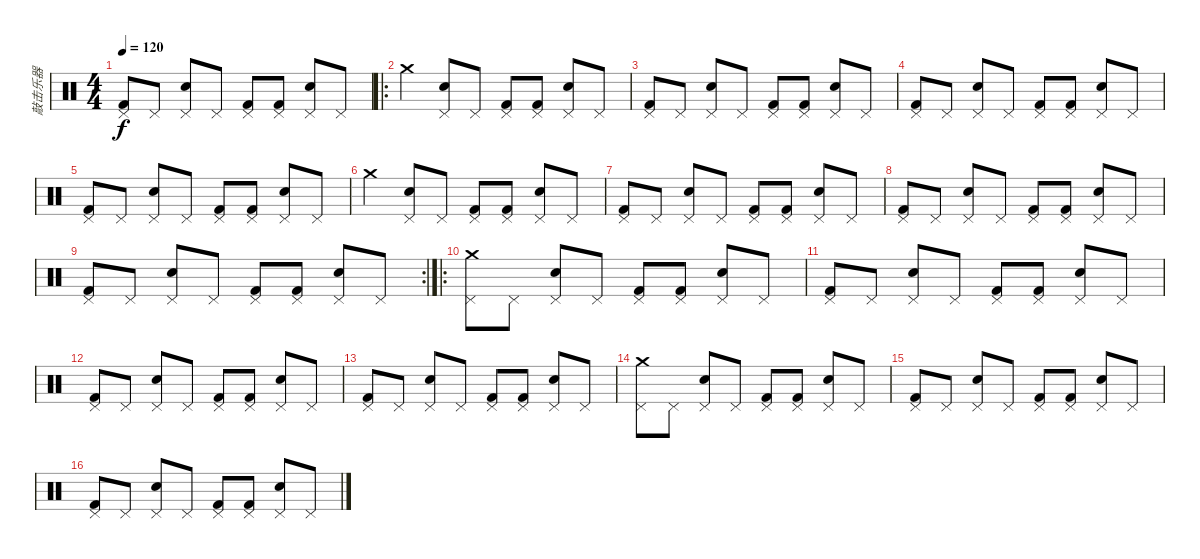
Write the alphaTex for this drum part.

\track ("敲击乐器" "敲击乐器") {instrument percussion}
\staff {score}
\articulation defaults
\ts (4 4)
\tempo 120
\clef neutral
\ks c
("Kick (hit) 2" "Pedal Hi-Hat (hit)").8{dy f} "Pedal Hi-Hat (hit)".8 ("Electric Snare (hit)" "Pedal Hi-Hat (hit)").8 "Pedal Hi-Hat (hit)".8 ("Kick (hit) 2" "Pedal Hi-Hat (hit)").8 ("Kick (hit) 2" "Pedal Hi-Hat (hit)").8 ("Electric Snare (hit)" "Pedal Hi-Hat (hit)").8 "Pedal Hi-Hat (hit)".8 |
\ro "Crash medium (hit)".4
("Electric Snare (hit)" "Pedal Hi-Hat (hit)").8 "Pedal Hi-Hat (hit)".8 ("Kick (hit) 2" "Pedal Hi-Hat (hit)").8 ("Kick (hit) 2" "Pedal Hi-Hat (hit)").8 ("Electric Snare (hit)" "Pedal Hi-Hat (hit)").8 "Pedal Hi-Hat (hit)".8 |
("Kick (hit) 2" "Pedal Hi-Hat (hit)").8 "Pedal Hi-Hat (hit)".8 ("Electric Snare (hit)" "Pedal Hi-Hat (hit)").8 "Pedal Hi-Hat (hit)".8 ("Kick (hit) 2" "Pedal Hi-Hat (hit)").8 ("Kick (hit) 2" "Pedal Hi-Hat (hit)").8 ("Electric Snare (hit)" "Pedal Hi-Hat (hit)").8 "Pedal Hi-Hat (hit)".8 |
("Kick (hit) 2" "Pedal Hi-Hat (hit)").8 "Pedal Hi-Hat (hit)".8 ("Electric Snare (hit)" "Pedal Hi-Hat (hit)").8 "Pedal Hi-Hat (hit)".8 ("Kick (hit) 2" "Pedal Hi-Hat (hit)").8 ("Kick (hit) 2" "Pedal Hi-Hat (hit)").8 ("Electric Snare (hit)" "Pedal Hi-Hat (hit)").8 "Pedal Hi-Hat (hit)".8 |
("Kick (hit) 2" "Pedal Hi-Hat (hit)").8 "Pedal Hi-Hat (hit)".8 ("Electric Snare (hit)" "Pedal Hi-Hat (hit)").8 "Pedal Hi-Hat (hit)".8 ("Kick (hit) 2" "Pedal Hi-Hat (hit)").8 ("Kick (hit) 2" "Pedal Hi-Hat (hit)").8 ("Electric Snare (hit)" "Pedal Hi-Hat (hit)").8 "Pedal Hi-Hat (hit)".8 |
"Crash medium (hit)".4 ("Electric Snare (hit)" "Pedal Hi-Hat (hit)").8 "Pedal Hi-Hat (hit)".8 ("Kick (hit) 2" "Pedal Hi-Hat (hit)").8 ("Kick (hit) 2" "Pedal Hi-Hat (hit)").8 ("Electric Snare (hit)" "Pedal Hi-Hat (hit)").8 "Pedal Hi-Hat (hit)".8 |
("Kick (hit) 2" "Pedal Hi-Hat (hit)").8 "Pedal Hi-Hat (hit)".8 ("Electric Snare (hit)" "Pedal Hi-Hat (hit)").8 "Pedal Hi-Hat (hit)".8 ("Kick (hit) 2" "Pedal Hi-Hat (hit)").8 ("Kick (hit) 2" "Pedal Hi-Hat (hit)").8 ("Electric Snare (hit)" "Pedal Hi-Hat (hit)").8 "Pedal Hi-Hat (hit)".8 |
("Kick (hit) 2" "Pedal Hi-Hat (hit)").8 "Pedal Hi-Hat (hit)".8 ("Electric Snare (hit)" "Pedal Hi-Hat (hit)").8 "Pedal Hi-Hat (hit)".8 ("Kick (hit) 2" "Pedal Hi-Hat (hit)").8 ("Kick (hit) 2" "Pedal Hi-Hat (hit)").8 ("Electric Snare (hit)" "Pedal Hi-Hat (hit)").8 "Pedal Hi-Hat (hit)".8 |
\rc 2
("Kick (hit) 2" "Pedal Hi-Hat (hit)").8 "Pedal Hi-Hat (hit)".8 ("Electric Snare (hit)" "Pedal Hi-Hat (hit)").8 "Pedal Hi-Hat (hit)".8 ("Kick (hit) 2" "Pedal Hi-Hat (hit)").8 ("Kick (hit) 2" "Pedal Hi-Hat (hit)").8 ("Electric Snare (hit)" "Pedal Hi-Hat (hit)").8 "Pedal Hi-Hat (hit)".8 |
\ro
("Crash medium (hit)" "Pedal Hi-Hat (hit)").8 "Pedal Hi-Hat (hit)".8 ("Electric Snare (hit)" "Pedal Hi-Hat (hit)").8 "Pedal Hi-Hat (hit)".8 ("Kick (hit) 2" "Pedal Hi-Hat (hit)").8 ("Kick (hit) 2" "Pedal Hi-Hat (hit)").8 ("Electric Snare (hit)" "Pedal Hi-Hat (hit)").8 "Pedal Hi-Hat (hit)".8 |
("Kick (hit) 2" "Pedal Hi-Hat (hit)").8 "Pedal Hi-Hat (hit)".8 ("Electric Snare (hit)" "Pedal Hi-Hat (hit)").8 "Pedal Hi-Hat (hit)".8 ("Kick (hit) 2" "Pedal Hi-Hat (hit)").8 ("Kick (hit) 2" "Pedal Hi-Hat (hit)").8 ("Electric Snare (hit)" "Pedal Hi-Hat (hit)").8 "Pedal Hi-Hat (hit)".8 |
("Kick (hit) 2" "Pedal Hi-Hat (hit)").8 "Pedal Hi-Hat (hit)".8 ("Electric Snare (hit)" "Pedal Hi-Hat (hit)").8 "Pedal Hi-Hat (hit)".8 ("Kick (hit) 2" "Pedal Hi-Hat (hit)").8 ("Kick (hit) 2" "Pedal Hi-Hat (hit)").8 ("Electric Snare (hit)" "Pedal Hi-Hat (hit)").8 "Pedal Hi-Hat (hit)".8 |
("Kick (hit) 2" "Pedal Hi-Hat (hit)").8 "Pedal Hi-Hat (hit)".8 ("Electric Snare (hit)" "Pedal Hi-Hat (hit)").8 "Pedal Hi-Hat (hit)".8 ("Kick (hit) 2" "Pedal Hi-Hat (hit)").8 ("Kick (hit) 2" "Pedal Hi-Hat (hit)").8 ("Electric Snare (hit)" "Pedal Hi-Hat (hit)").8 "Pedal Hi-Hat (hit)".8 |
("Crash medium (hit)" "Pedal Hi-Hat (hit)").8 "Pedal Hi-Hat (hit)".8 ("Electric Snare (hit)" "Pedal Hi-Hat (hit)").8 "Pedal Hi-Hat (hit)".8 ("Kick (hit) 2" "Pedal Hi-Hat (hit)").8 ("Kick (hit) 2" "Pedal Hi-Hat (hit)").8 ("Electric Snare (hit)" "Pedal Hi-Hat (hit)").8 "Pedal Hi-Hat (hit)".8 |
("Kick (hit) 2" "Pedal Hi-Hat (hit)").8 "Pedal Hi-Hat (hit)".8 ("Electric Snare (hit)" "Pedal Hi-Hat (hit)").8 "Pedal Hi-Hat (hit)".8 ("Kick (hit) 2" "Pedal Hi-Hat (hit)").8 ("Kick (hit) 2" "Pedal Hi-Hat (hit)").8 ("Electric Snare (hit)" "Pedal Hi-Hat (hit)").8 "Pedal Hi-Hat (hit)".8 |
("Kick (hit) 2" "Pedal Hi-Hat (hit)").8 "Pedal Hi-Hat (hit)".8 ("Electric Snare (hit)" "Pedal Hi-Hat (hit)").8 "Pedal Hi-Hat (hit)".8 ("Kick (hit) 2" "Pedal Hi-Hat (hit)").8 ("Kick (hit) 2" "Pedal Hi-Hat (hit)").8 ("Electric Snare (hit)" "Pedal Hi-Hat (hit)").8 "Pedal Hi-Hat (hit)".8
